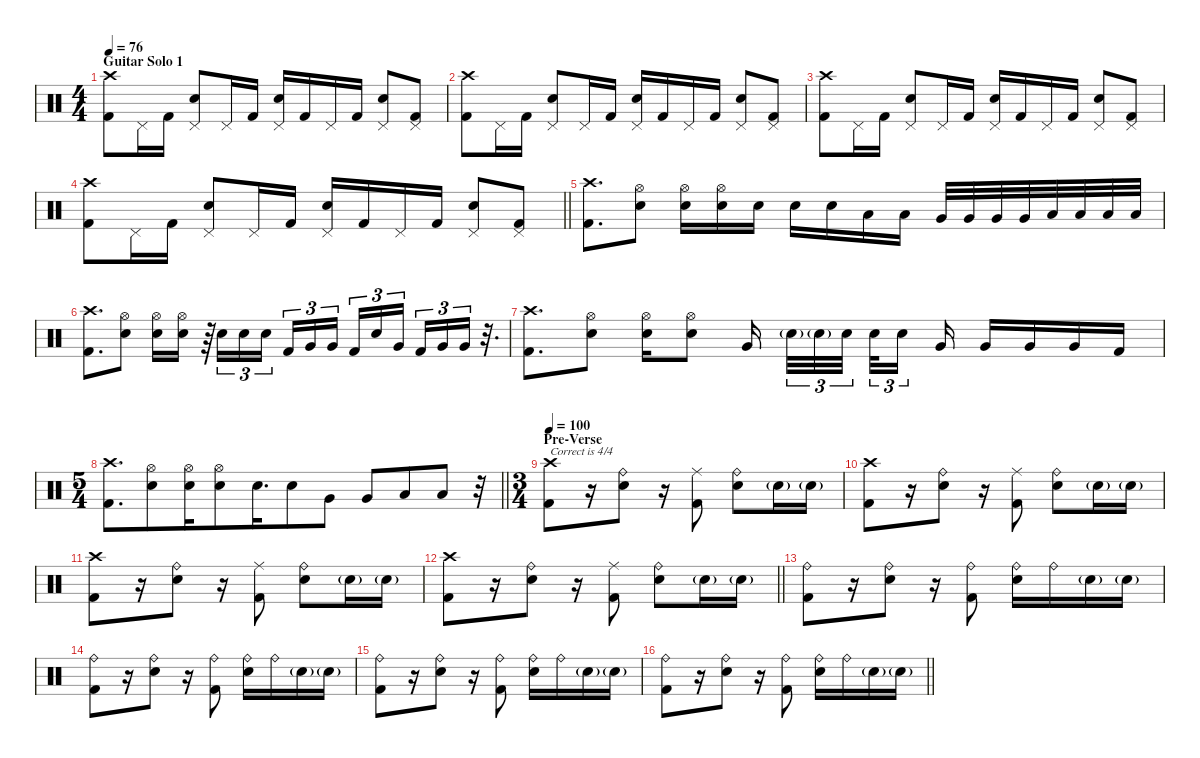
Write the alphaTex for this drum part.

\defaultSystemsLayout 4
\hideDynamics
\bracketExtendMode nobrackets
\singleTrackTrackNamePolicy hidden
\multiTrackTrackNamePolicy hidden
\firstSystemTrackNameMode fullname
\firstSystemTrackNameOrientation horizontal
\otherSystemsTrackNameOrientation horizontal
\track ("Bill Ward - Drums" "drm.") {instrument percussion}
\staff {score}
\articulation defaults
\ts (4 4)
\section ("" "Guitar Solo 1")
\tempo 76
\clef neutral
\ks c
("Crash high (hit)" "Kick (hit) 2").8{dy f} "Pedal Hi-Hat (hit)".16 "Kick (hit) 2".16 ("Pedal Hi-Hat (hit)" "Snare (hit) 2").8 "Pedal Hi-Hat (hit)".16 "Kick (hit) 2".16 ("Pedal Hi-Hat (hit)" "Snare (hit) 2").16 "Kick (hit) 2".16 "Pedal Hi-Hat (hit)".16 "Kick (hit) 2".16 ("Pedal Hi-Hat (hit)" "Snare (hit) 2").8 ("Pedal Hi-Hat (hit)" "Kick (hit) 2").8 |
("Crash high (hit)" "Kick (hit) 2").8 "Pedal Hi-Hat (hit)".16 "Kick (hit) 2".16 ("Pedal Hi-Hat (hit)" "Snare (hit) 2").8 "Pedal Hi-Hat (hit)".16 "Kick (hit) 2".16 ("Pedal Hi-Hat (hit)" "Snare (hit) 2").16 "Kick (hit) 2".16 "Pedal Hi-Hat (hit)".16 "Kick (hit) 2".16 ("Pedal Hi-Hat (hit)" "Snare (hit) 2").8 ("Pedal Hi-Hat (hit)" "Kick (hit) 2").8 |
("Crash high (hit)" "Kick (hit) 2").8 "Pedal Hi-Hat (hit)".16 "Kick (hit) 2".16 ("Pedal Hi-Hat (hit)" "Snare (hit) 2").8 "Pedal Hi-Hat (hit)".16 "Kick (hit) 2".16 ("Pedal Hi-Hat (hit)" "Snare (hit) 2").16 "Kick (hit) 2".16 "Pedal Hi-Hat (hit)".16 "Kick (hit) 2".16 ("Pedal Hi-Hat (hit)" "Snare (hit) 2").8 ("Pedal Hi-Hat (hit)" "Kick (hit) 2").8 |
\barLineRight lightlight
("Crash high (hit)" "Kick (hit) 2").8 "Pedal Hi-Hat (hit)".16 "Kick (hit) 2".16 ("Pedal Hi-Hat (hit)" "Snare (hit) 2").8 "Pedal Hi-Hat (hit)".16 "Kick (hit) 2".16 ("Pedal Hi-Hat (hit)" "Snare (hit) 2").16 "Kick (hit) 2".16 "Pedal Hi-Hat (hit)".16 "Kick (hit) 2".16 ("Pedal Hi-Hat (hit)" "Snare (hit) 2").8 ("Pedal Hi-Hat (hit)" "Kick (hit) 2").8 |
("Crash high (hit)" "Kick (hit) 2").8{d} ("Hi-Hat (open)" "Snare (hit) 2").8 ("Hi-Hat (open)" "Snare (hit) 2").16 ("Hi-Hat (open)" "Snare (hit) 2").16 "Snare (hit) 2".16 "Snare (hit) 2".16 "Snare (hit) 2".16 "Low Tom (hit)".16 "Low Tom (hit)".16 "Very Low Tom (hit)".32 "Very Low Tom (hit)".32 "Very Low Tom (hit)".32 "Very Low Tom (hit)".32 "Low Floor Tom (hit)".32 "Low Floor Tom (hit)".32 "Low Floor Tom (hit)".32 "Low Floor Tom (hit)".32 |
("Crash high (hit)" "Kick (hit) 2").8{d} ("Hi-Hat (open)" "Snare (hit) 2").8 ("Hi-Hat (open)" "Snare (hit) 2").16 ("Hi-Hat (open)" "Snare (hit) 2").16 r.64 "Snare (hit) 2".16{tu (3 2)} "Snare (hit) 2".16{tu (3 2)} "Snare (hit) 2".16{tu (3 2)} "Kick (hit) 2".16{tu (3 2)} "Very Low Tom (hit)".16{tu (3 2)} "Very Low Tom (hit)".16{tu (3 2)} "Kick (hit) 2".16{tu (3 2)} "Snare (hit) 2".16{tu (3 2)} "Very Low Tom (hit)".16{tu (3 2)} "Kick (hit) 2".16{tu (3 2)} "Very Low Tom (hit)".16{tu (3 2)} "Very Low Tom (hit)".16{tu (3 2)} r.32{d} |
("Crash high (hit)" "Kick (hit) 2").8{d} ("Hi-Hat (open)" "Snare (hit) 2").8 ("Hi-Hat (open)" "Snare (hit) 2").16 ("Hi-Hat (open)" "Snare (hit) 2").8 "Very Low Tom (hit)".16 "Snare (hit) 2"{g}.32{tu (3 2) dy mf} "Snare (hit) 2"{g}.32{tu (3 2)} "Snare (hit) 2".32{tu (3 2) dy f} "Snare (hit) 2".32{tu (3 2)} "Snare (hit) 2".16{tu (3 2)} "Very Low Tom (hit)".16 "Very Low Tom (hit)".16 "Very Low Tom (hit)".16 "Very Low Tom (hit)".16 "Kick (hit) 2".16 |
\ts (5 4)
\beaming (8 6 4)
\barLineRight lightlight
("Crash high (hit)" "Kick (hit) 2").8{d} ("Hi-Hat (open)" "Snare (hit) 2").8 ("Hi-Hat (open)" "Snare (hit) 2").16 ("Hi-Hat (open)" "Snare (hit) 2").8 "Snare (hit) 2".16{d} "Snare (hit) 2".8 "Very Low Tom (hit)".8 "Very Low Tom (hit)".8 "Low Floor Tom (hit)".8 "Low Floor Tom (hit)".8 r.32 |
\ts (3 4)
\beaming (8 2 2 2)
\section ("" "Pre-Verse")
\tempo 100
("Crash high (hit)" "Kick (hit) 2").8{txt "Correct is 4/4"} r.16 ("Ride (bell)" "Snare (hit) 2").8 r.16 ("Ride (middle)" "Kick (hit) 2").8 ("Ride (bell)" "Snare (hit) 2").8 "Snare (hit) 2"{g}.16{dy mf} "Snare (hit) 2"{g}.16 |
("Crash high (hit)" "Kick (hit) 2").8{dy f} r.16 ("Ride (bell)" "Snare (hit) 2").8 r.16 ("Ride (middle)" "Kick (hit) 2").8 ("Ride (bell)" "Snare (hit) 2").8 "Snare (hit) 2"{g}.16{dy mf} "Snare (hit) 2"{g}.16 |
("Crash high (hit)" "Kick (hit) 2").8{dy f} r.16 ("Ride (bell)" "Snare (hit) 2").8 r.16 ("Ride (middle)" "Kick (hit) 2").8 ("Ride (bell)" "Snare (hit) 2").8 "Snare (hit) 2"{g}.16{dy mf} "Snare (hit) 2"{g}.16 |
\barLineRight lightlight
("Crash high (hit)" "Kick (hit) 2").8{dy f} r.16 ("Ride (bell)" "Snare (hit) 2").8 r.16 ("Ride (middle)" "Kick (hit) 2").8 ("Ride (bell)" "Snare (hit) 2").8 "Snare (hit) 2"{g}.16{dy mf} "Snare (hit) 2"{g}.16 |
("Ride (bell)" "Kick (hit) 2").8{dy f} r.16 ("Ride (bell)" "Snare (hit) 2").8 r.16 ("Ride (bell)" "Kick (hit) 2").8 ("Ride (bell)" "Snare (hit) 2").16 "Ride (bell)".16 "Snare (hit) 2"{g}.16{dy mf} "Snare (hit) 2"{g}.16 |
("Ride (bell)" "Kick (hit) 2").8{dy f} r.16 ("Ride (bell)" "Snare (hit) 2").8 r.16 ("Ride (bell)" "Kick (hit) 2").8 ("Ride (bell)" "Snare (hit) 2").16 "Ride (bell)".16 "Snare (hit) 2"{g}.16{dy mf} "Snare (hit) 2"{g}.16 |
("Ride (bell)" "Kick (hit) 2").8{dy f} r.16 ("Ride (bell)" "Snare (hit) 2").8 r.16 ("Ride (bell)" "Kick (hit) 2").8 ("Ride (bell)" "Snare (hit) 2").16 "Ride (bell)".16 "Snare (hit) 2"{g}.16{dy mf} "Snare (hit) 2"{g}.16 |
\barLineRight lightlight
("Ride (bell)" "Kick (hit) 2").8{dy f} r.16 ("Ride (bell)" "Snare (hit) 2").8 r.16 ("Ride (bell)" "Kick (hit) 2").8 ("Ride (bell)" "Snare (hit) 2").16 "Ride (bell)".16 "Snare (hit) 2"{g}.16{dy mf} "Snare (hit) 2"{g}.16
